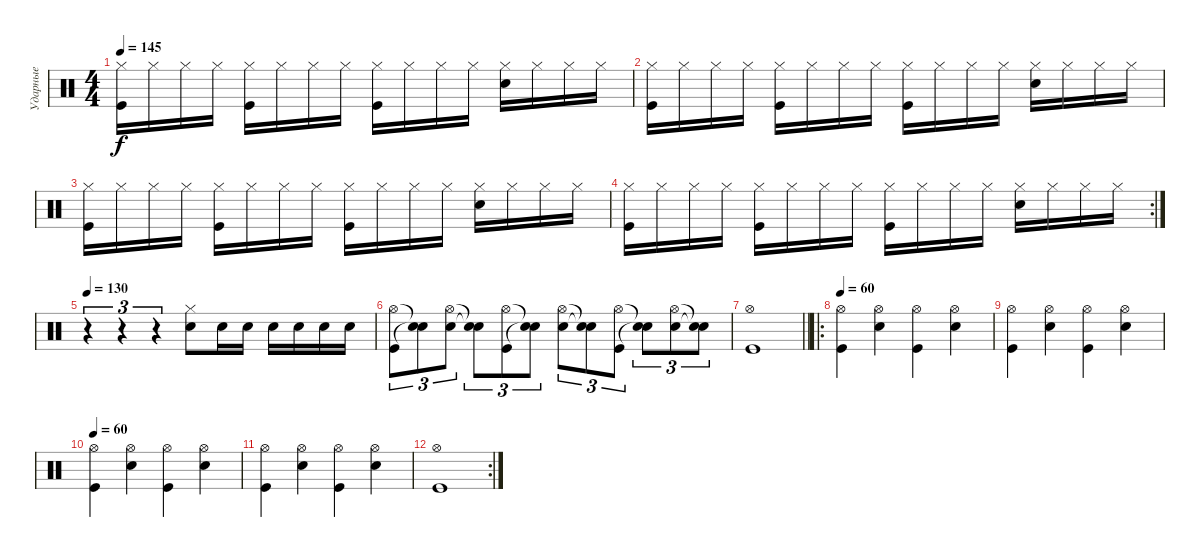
\track ("Ударные" "Ударные") {instrument percussion}
\staff {score}
\articulation defaults
\ts (4 4)
\tempo 145
\clef neutral
\ks c
("Kick (hit)" "Hi-Hat (closed)").16{dy f} "Hi-Hat (closed)".16 "Hi-Hat (closed)".16 "Hi-Hat (closed)".16 ("Kick (hit)" "Hi-Hat (closed)").16 "Hi-Hat (closed)".16 "Hi-Hat (closed)".16 "Hi-Hat (closed)".16 ("Kick (hit)" "Hi-Hat (closed)").16 "Hi-Hat (closed)".16 "Hi-Hat (closed)".16 "Hi-Hat (closed)".16 ("Electric Snare (hit)" "Hi-Hat (closed)").16 "Hi-Hat (closed)".16 "Hi-Hat (closed)".16 "Hi-Hat (closed)".16 |
("Kick (hit)" "Hi-Hat (closed)").16 "Hi-Hat (closed)".16 "Hi-Hat (closed)".16 "Hi-Hat (closed)".16 ("Kick (hit)" "Hi-Hat (closed)").16 "Hi-Hat (closed)".16 "Hi-Hat (closed)".16 "Hi-Hat (closed)".16 ("Kick (hit)" "Hi-Hat (closed)").16 "Hi-Hat (closed)".16 "Hi-Hat (closed)".16 "Hi-Hat (closed)".16 ("Electric Snare (hit)" "Hi-Hat (closed)").16 "Hi-Hat (closed)".16 "Hi-Hat (closed)".16 "Hi-Hat (closed)".16 |
("Kick (hit)" "Hi-Hat (closed)").16 "Hi-Hat (closed)".16 "Hi-Hat (closed)".16 "Hi-Hat (closed)".16 ("Kick (hit)" "Hi-Hat (closed)").16 "Hi-Hat (closed)".16 "Hi-Hat (closed)".16 "Hi-Hat (closed)".16 ("Kick (hit)" "Hi-Hat (closed)").16 "Hi-Hat (closed)".16 "Hi-Hat (closed)".16 "Hi-Hat (closed)".16 ("Electric Snare (hit)" "Hi-Hat (closed)").16 "Hi-Hat (closed)".16 "Hi-Hat (closed)".16 "Hi-Hat (closed)".16 |
\rc 2
("Kick (hit)" "Hi-Hat (closed)").16 "Hi-Hat (closed)".16 "Hi-Hat (closed)".16 "Hi-Hat (closed)".16 ("Kick (hit)" "Hi-Hat (closed)").16 "Hi-Hat (closed)".16 "Hi-Hat (closed)".16 "Hi-Hat (closed)".16 ("Kick (hit)" "Hi-Hat (closed)").16 "Hi-Hat (closed)".16 "Hi-Hat (closed)".16 "Hi-Hat (closed)".16 ("Electric Snare (hit)" "Hi-Hat (closed)").16 "Hi-Hat (closed)".16 "Hi-Hat (closed)".16 "Hi-Hat (closed)".16 |
\tempo 130
r.4{tu (3 2)} r.4{tu (3 2)} r.4{tu (3 2)} ("Hi-Hat (closed)" "Snare (hit) 2").8 "Snare (hit) 2".16 "Snare (hit) 2".16 "Snare (hit) 2".16 "Snare (hit) 2".16 "Snare (hit) 2".16 "Snare (hit) 2".16 |
("Kick (hit)" "Hi-Hat (open)").8{tu (3 2)} ("Snare (hit)"{t} "Snare (hit)"{t}).8{tu (3 2)} ("Electric Snare (hit)" "Hi-Hat (open)").8{tu (3 2)} ("Snare (hit)"{t} "Snare (hit)"{t}).8{tu (3 2)} ("Kick (hit)" "Hi-Hat (open)").8{tu (3 2)} ("Snare (hit)"{t} "Snare (hit)"{t}).8{tu (3 2)} ("Electric Snare (hit)" "Hi-Hat (open)").8{tu (3 2)} ("Snare (hit)"{t} "Snare (hit)"{t}).8{tu (3 2)} ("Kick (hit)" "Hi-Hat (open)").8{tu (3 2)} ("Snare (hit)"{t} "Snare (hit)"{t}).8{tu (3 2)} ("Electric Snare (hit)" "Hi-Hat (open)").8{tu (3 2)} ("Snare (hit)"{t} "Snare (hit)"{t}).8{tu (3 2)} |
\barLineRight lightlight
("Kick (hit)" "Hi-Hat (open)").1 |
\ro
\tempo 60
("Kick (hit)" "Hi-Hat (open)").4 ("Electric Snare (hit)" "Hi-Hat (open)").4 ("Kick (hit)" "Hi-Hat (open)").4 ("Electric Snare (hit)" "Hi-Hat (open)").4 |
("Kick (hit)" "Hi-Hat (open)").4 ("Electric Snare (hit)" "Hi-Hat (open)").4 ("Kick (hit)" "Hi-Hat (open)").4 ("Electric Snare (hit)" "Hi-Hat (open)").4 |
\tempo 60
("Kick (hit)" "Hi-Hat (open)").4 ("Electric Snare (hit)" "Hi-Hat (open)").4 ("Kick (hit)" "Hi-Hat (open)").4 ("Electric Snare (hit)" "Hi-Hat (open)").4 |
("Kick (hit)" "Hi-Hat (open)").4 ("Electric Snare (hit)" "Hi-Hat (open)").4 ("Kick (hit)" "Hi-Hat (open)").4 ("Electric Snare (hit)" "Hi-Hat (open)").4 |
\rc 2
("Kick (hit)" "Hi-Hat (open)").1{volume 7}
